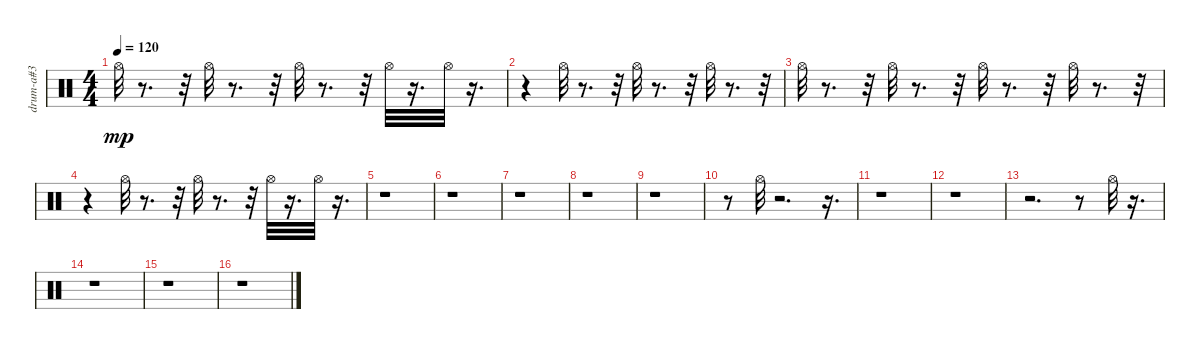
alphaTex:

\track ("drum-a#3" "drum-a#3") {instrument percussion}
\staff {score}
\articulation defaults
\ts (4 4)
\tempo 120
\clef neutral
\ks c "Hi-Hat (open)".32{dy mp}
r.8{d} r.32 "Hi-Hat (open)".32 r.8{d} r.32 "Hi-Hat (open)".32 r.8{d} r.32 "Hi-Hat (open)".32 r.16{d} "Hi-Hat (open)".32 r.16{d} |
r.4 "Hi-Hat (open)".32 r.8{d} r.32 "Hi-Hat (open)".32 r.8{d} r.32 "Hi-Hat (open)".32 r.8{d} r.32 |
"Hi-Hat (open)".32 r.8{d} r.32 "Hi-Hat (open)".32 r.8{d} r.32 "Hi-Hat (open)".32 r.8{d} r.32 "Hi-Hat (open)".32 r.8{d} r.32 |
r.4 "Hi-Hat (open)".32 r.8{d} r.32 "Hi-Hat (open)".32 r.8{d} r.32 "Hi-Hat (open)".32 r.16{d} "Hi-Hat (open)".32 r.16{d} |
r.1 |
r.1 |
r.1 |
r.1 |
r.1 |
r.8 "Hi-Hat (open)".32 r.2{d} r.16{d} |
r.1 |
r.1 |
r.2{d} r.8 "Hi-Hat (open)".32 r.16{d} |
r.1 |
r.1 |
r.1
